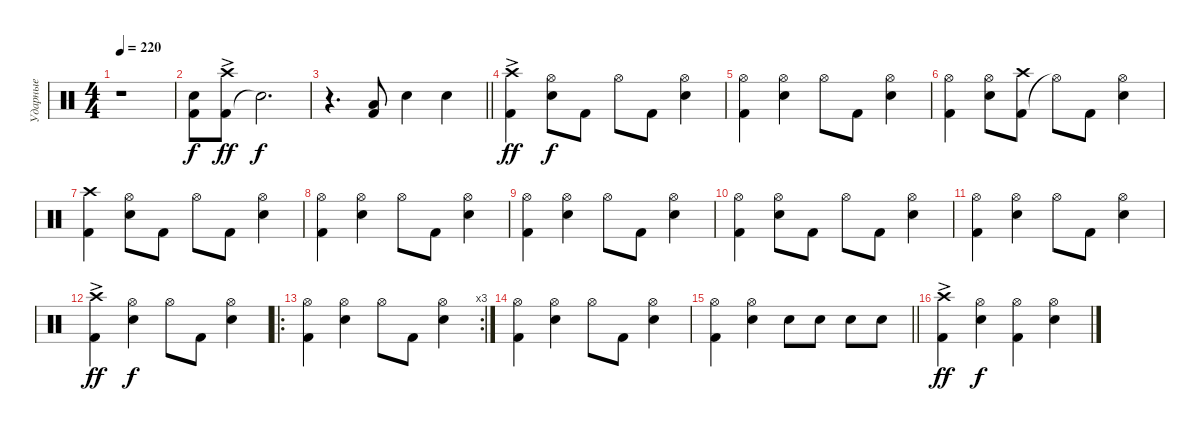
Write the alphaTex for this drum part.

\track ("Ударные" "Ударные") {instrument percussion}
\staff {score}
\articulation defaults
\ts (4 4)
\tempo 220
\clef neutral
\ks c
r.1{dy ff} |
("Kick (hit) 2" "Snare (hit) 2").8{dy f} ("Kick (hit) 2" "Crash high (hit)"{ac}).8{dy ff} "Snare (hit)"{t}.2{d dy f} |
\barLineRight lightlight
r.4{d} ("Kick (hit) 2" "Low Tom (hit)").8 "Snare (hit) 2".4 "Snare (hit) 2".4 |
("Kick (hit) 2" "Crash high (hit)"{ac}).4{dy ff} ("Snare (hit) 2" "Hi-Hat (open)").8{dy f} "Kick (hit) 2".8 "Hi-Hat (open)".8 "Kick (hit) 2".8 ("Snare (hit) 2" "Hi-Hat (open)").4 |
("Kick (hit) 2" "Hi-Hat (open)").4 ("Snare (hit) 2" "Hi-Hat (open)").4 "Hi-Hat (open)".8 "Kick (hit) 2".8 ("Snare (hit) 2" "Hi-Hat (open)").4 |
("Kick (hit) 2" "Hi-Hat (open)").4 ("Snare (hit) 2" "Hi-Hat (open)").8 ("Kick (hit) 2" "Crash high (hit)").8 "Hi-Hat (open)"{t}.8 "Kick (hit) 2".8 ("Snare (hit) 2" "Hi-Hat (open)").4 |
("Kick (hit) 2" "Crash high (hit)").4 ("Snare (hit) 2" "Hi-Hat (open)").8 "Kick (hit) 2".8 "Hi-Hat (open)".8 "Kick (hit) 2".8 ("Snare (hit) 2" "Hi-Hat (open)").4 |
("Kick (hit) 2" "Hi-Hat (open)").4 ("Snare (hit) 2" "Hi-Hat (open)").4 "Hi-Hat (open)".8 "Kick (hit) 2".8 ("Snare (hit) 2" "Hi-Hat (open)").4 |
("Kick (hit) 2" "Hi-Hat (open)").4 ("Snare (hit) 2" "Hi-Hat (open)").4 "Hi-Hat (open)".8 "Kick (hit) 2".8 ("Snare (hit) 2" "Hi-Hat (open)").4 |
("Kick (hit) 2" "Hi-Hat (open)").4 ("Snare (hit) 2" "Hi-Hat (open)").8 "Kick (hit) 2".8 "Hi-Hat (open)".8 "Kick (hit) 2".8 ("Snare (hit) 2" "Hi-Hat (open)").4 |
("Kick (hit) 2" "Hi-Hat (open)").4 ("Snare (hit) 2" "Hi-Hat (open)").4 "Hi-Hat (open)".8 "Kick (hit) 2".8 ("Snare (hit) 2" "Hi-Hat (open)").4 |
("Kick (hit) 2" "Crash high (hit)"{ac}).4{dy ff} ("Snare (hit) 2" "Hi-Hat (open)").4{dy f} "Hi-Hat (open)".8 "Kick (hit) 2".8 ("Snare (hit) 2" "Hi-Hat (open)").4 |
\ro
\rc 3
("Kick (hit) 2" "Hi-Hat (open)").4 ("Snare (hit) 2" "Hi-Hat (open)").4 "Hi-Hat (open)".8 "Kick (hit) 2".8 ("Snare (hit) 2" "Hi-Hat (open)").4 |
("Kick (hit) 2" "Hi-Hat (open)").4 ("Snare (hit) 2" "Hi-Hat (open)").4 "Hi-Hat (open)".8 "Kick (hit) 2".8 ("Snare (hit) 2" "Hi-Hat (open)").4 |
\barLineRight lightlight
("Kick (hit) 2" "Hi-Hat (open)").4 ("Snare (hit) 2" "Hi-Hat (open)").4 "Snare (hit) 2".8 "Snare (hit) 2".8 "Snare (hit) 2".8 "Snare (hit) 2".8 |
("Kick (hit) 2" "Crash high (hit)"{ac}).4{dy ff} ("Snare (hit) 2" "Hi-Hat (open)").4{dy f} ("Kick (hit) 2" "Hi-Hat (open)").4 ("Snare (hit) 2" "Hi-Hat (open)").4
